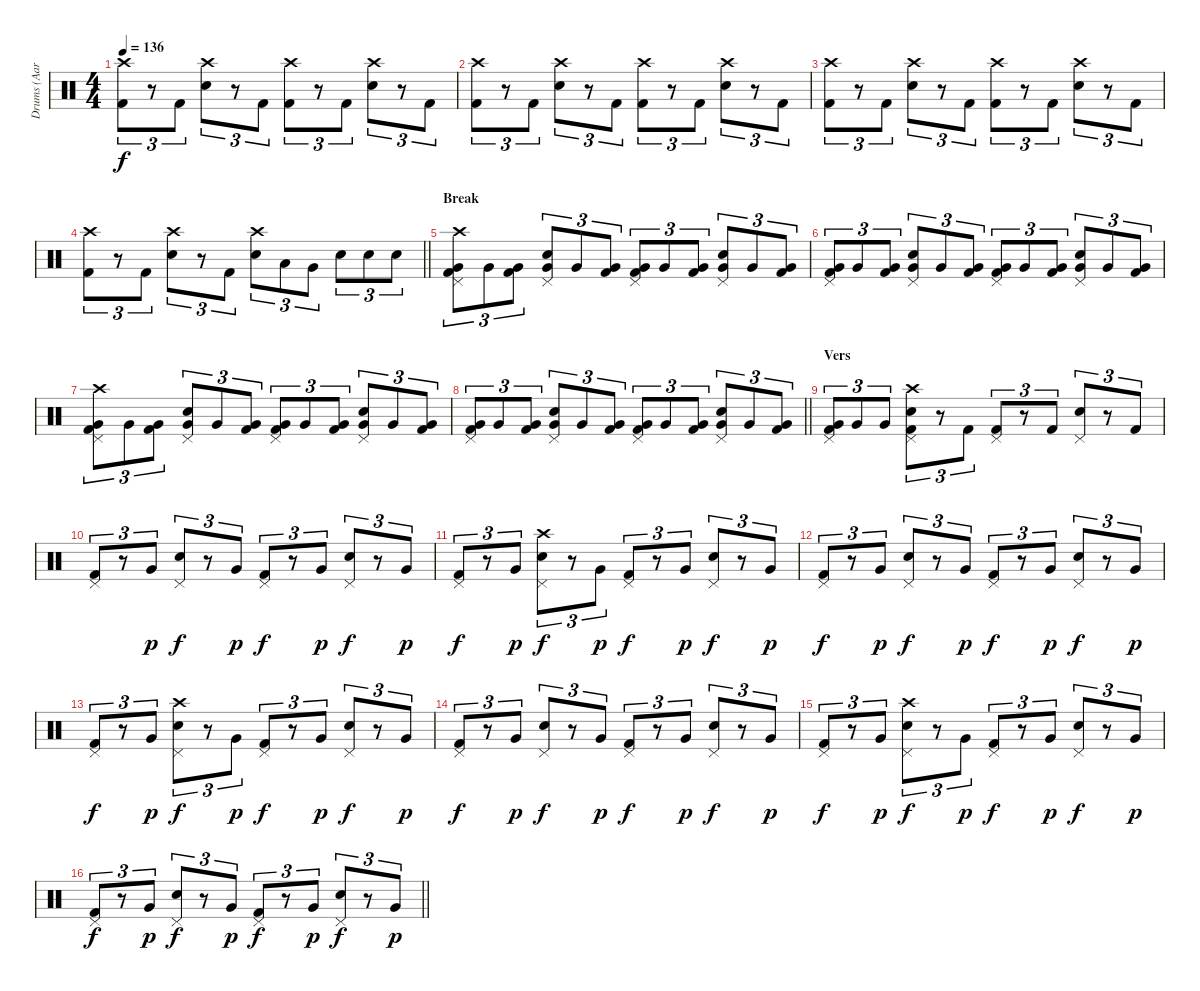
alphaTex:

\track ("Drums (Aaron Solowoniuk)" "Drums (Aar") {instrument percussion}
\staff {score}
\articulation defaults
\ts (4 4)
\tempo 136
\clef neutral
\ks c
("Crash high (hit)" "Kick (hit) 2").8{tu (3 2) dy f} r.8{tu (3 2)} "Kick (hit) 2".8{tu (3 2)} ("Crash high (hit)" "Electric Snare (hit)").8{tu (3 2)} r.8{tu (3 2)} "Kick (hit) 2".8{tu (3 2)} ("Crash high (hit)" "Kick (hit) 2").8{tu (3 2)} r.8{tu (3 2)} "Kick (hit) 2".8{tu (3 2)} ("Crash high (hit)" "Electric Snare (hit)").8{tu (3 2)} r.8{tu (3 2)} "Kick (hit) 2".8{tu (3 2)} |
("Crash high (hit)" "Kick (hit) 2").8{tu (3 2)} r.8{tu (3 2)} "Kick (hit) 2".8{tu (3 2)} ("Crash high (hit)" "Electric Snare (hit)").8{tu (3 2)} r.8{tu (3 2)} "Kick (hit) 2".8{tu (3 2)} ("Crash high (hit)" "Kick (hit) 2").8{tu (3 2)} r.8{tu (3 2)} "Kick (hit) 2".8{tu (3 2)} ("Crash high (hit)" "Electric Snare (hit)").8{tu (3 2)} r.8{tu (3 2)} "Kick (hit) 2".8{tu (3 2)} |
("Crash high (hit)" "Kick (hit) 2").8{tu (3 2)} r.8{tu (3 2)} "Kick (hit) 2".8{tu (3 2)} ("Crash high (hit)" "Electric Snare (hit)").8{tu (3 2)} r.8{tu (3 2)} "Kick (hit) 2".8{tu (3 2)} ("Crash high (hit)" "Kick (hit) 2").8{tu (3 2)} r.8{tu (3 2)} "Kick (hit) 2".8{tu (3 2)} ("Crash high (hit)" "Electric Snare (hit)").8{tu (3 2)} r.8{tu (3 2)} "Kick (hit) 2".8{tu (3 2)} |
\barLineRight lightlight
("Kick (hit) 2" "Crash high (hit)").8{tu (3 2)} r.8{tu (3 2)} "Kick (hit) 2".8{tu (3 2)} ("Electric Snare (hit)" "Crash high (hit)").8{tu (3 2)} r.8{tu (3 2)} "Kick (hit) 2".8{tu (3 2)} ("Electric Snare (hit)" "Crash high (hit)").8{tu (3 2)} "Low Tom (hit)".8{tu (3 2)} "Very Low Tom (hit)".8{tu (3 2)} "Electric Snare (hit)".8{tu (3 2)} "Electric Snare (hit)".8{tu (3 2)} "Electric Snare (hit)".8{tu (3 2)} |
\section ("" "Break")
("Pedal Hi-Hat (hit)" "Crash high (hit)" "Very Low Tom (hit)" "Kick (hit) 2").8{tu (3 2)} "Very Low Tom (hit)".8{tu (3 2)} ("Very Low Tom (hit)" "Kick (hit) 2").8{tu (3 2)} ("Pedal Hi-Hat (hit)" "Very Low Tom (hit)" "Electric Snare (hit)").8{tu (3 2)} "Very Low Tom (hit)".8{tu (3 2)} ("Very Low Tom (hit)" "Kick (hit) 2").8{tu (3 2)} ("Pedal Hi-Hat (hit)" "Very Low Tom (hit)" "Kick (hit) 2").8{tu (3 2)} "Very Low Tom (hit)".8{tu (3 2)} ("Very Low Tom (hit)" "Kick (hit) 2").8{tu (3 2)} ("Pedal Hi-Hat (hit)" "Very Low Tom (hit)" "Electric Snare (hit)").8{tu (3 2)} "Very Low Tom (hit)".8{tu (3 2)} ("Very Low Tom (hit)" "Kick (hit) 2").8{tu (3 2)} |
("Pedal Hi-Hat (hit)" "Very Low Tom (hit)" "Kick (hit) 2").8{tu (3 2)} "Very Low Tom (hit)".8{tu (3 2)} ("Very Low Tom (hit)" "Kick (hit) 2").8{tu (3 2)} ("Pedal Hi-Hat (hit)" "Very Low Tom (hit)" "Electric Snare (hit)").8{tu (3 2)} "Very Low Tom (hit)".8{tu (3 2)} ("Very Low Tom (hit)" "Kick (hit) 2").8{tu (3 2)} ("Pedal Hi-Hat (hit)" "Very Low Tom (hit)" "Kick (hit) 2").8{tu (3 2)} "Very Low Tom (hit)".8{tu (3 2)} ("Very Low Tom (hit)" "Kick (hit) 2").8{tu (3 2)} ("Pedal Hi-Hat (hit)" "Very Low Tom (hit)" "Electric Snare (hit)").8{tu (3 2)} "Very Low Tom (hit)".8{tu (3 2)} ("Very Low Tom (hit)" "Kick (hit) 2").8{tu (3 2)} |
("Pedal Hi-Hat (hit)" "Crash high (hit)" "Very Low Tom (hit)" "Kick (hit) 2").8{tu (3 2)} "Very Low Tom (hit)".8{tu (3 2)} ("Very Low Tom (hit)" "Kick (hit) 2").8{tu (3 2)} ("Pedal Hi-Hat (hit)" "Very Low Tom (hit)" "Electric Snare (hit)").8{tu (3 2)} "Very Low Tom (hit)".8{tu (3 2)} ("Very Low Tom (hit)" "Kick (hit) 2").8{tu (3 2)} ("Pedal Hi-Hat (hit)" "Very Low Tom (hit)" "Kick (hit) 2").8{tu (3 2)} "Very Low Tom (hit)".8{tu (3 2)} ("Very Low Tom (hit)" "Kick (hit) 2").8{tu (3 2)} ("Pedal Hi-Hat (hit)" "Very Low Tom (hit)" "Electric Snare (hit)").8{tu (3 2)} "Very Low Tom (hit)".8{tu (3 2)} ("Very Low Tom (hit)" "Kick (hit) 2").8{tu (3 2)} |
\barLineRight lightlight
("Pedal Hi-Hat (hit)" "Very Low Tom (hit)" "Kick (hit) 2").8{tu (3 2)} "Very Low Tom (hit)".8{tu (3 2)} ("Very Low Tom (hit)" "Kick (hit) 2").8{tu (3 2)} ("Pedal Hi-Hat (hit)" "Very Low Tom (hit)" "Electric Snare (hit)").8{tu (3 2)} "Very Low Tom (hit)".8{tu (3 2)} ("Very Low Tom (hit)" "Kick (hit) 2").8{tu (3 2)} ("Pedal Hi-Hat (hit)" "Very Low Tom (hit)" "Kick (hit) 2").8{tu (3 2)} "Very Low Tom (hit)".8{tu (3 2)} ("Very Low Tom (hit)" "Kick (hit) 2").8{tu (3 2)} ("Pedal Hi-Hat (hit)" "Very Low Tom (hit)" "Electric Snare (hit)").8{tu (3 2)} "Very Low Tom (hit)".8{tu (3 2)} ("Very Low Tom (hit)" "Kick (hit) 2").8{tu (3 2)} |
\section ("" "Vers")
("Pedal Hi-Hat (hit)" "Very Low Tom (hit)" "Kick (hit) 2").8{tu (3 2)} "Very Low Tom (hit)".8{tu (3 2)} "Very Low Tom (hit)".8{tu (3 2)} ("Pedal Hi-Hat (hit)" "Crash high (hit)" "Electric Snare (hit)" "Kick (hit) 2").8{tu (3 2)} r.8{tu (3 2)} "Kick (hit) 2".8{tu (3 2)} ("Pedal Hi-Hat (hit)" "Kick (hit) 2").8{tu (3 2)} r.8{tu (3 2)} "Kick (hit) 2".8{tu (3 2)} ("Pedal Hi-Hat (hit)" "Electric Snare (hit)").8{tu (3 2)} r.8{tu (3 2)} "Kick (hit) 2".8{tu (3 2)} |
("Pedal Hi-Hat (hit)" "Kick (hit) 2").8{tu (3 2)} r.8{tu (3 2)} "Very Low Tom (hit)".8{tu (3 2) dy p} ("Pedal Hi-Hat (hit)" "Electric Snare (hit)").8{tu (3 2) dy f} r.8{tu (3 2)} "Very Low Tom (hit)".8{tu (3 2) dy p} ("Pedal Hi-Hat (hit)" "Kick (hit) 2").8{tu (3 2) dy f} r.8{tu (3 2)} "Very Low Tom (hit)".8{tu (3 2) dy p} ("Pedal Hi-Hat (hit)" "Electric Snare (hit)").8{tu (3 2) dy f} r.8{tu (3 2)} "Very Low Tom (hit)".8{tu (3 2) dy p} |
("Pedal Hi-Hat (hit)" "Kick (hit) 2").8{tu (3 2) dy f} r.8{tu (3 2)} "Very Low Tom (hit)".8{tu (3 2) dy p} ("Crash high (hit)" "Pedal Hi-Hat (hit)" "Electric Snare (hit)").8{tu (3 2) dy f} r.8{tu (3 2)} "Very Low Tom (hit)".8{tu (3 2) dy p} ("Pedal Hi-Hat (hit)" "Kick (hit) 2").8{tu (3 2) dy f} r.8{tu (3 2)} "Very Low Tom (hit)".8{tu (3 2) dy p} ("Pedal Hi-Hat (hit)" "Electric Snare (hit)").8{tu (3 2) dy f} r.8{tu (3 2)} "Very Low Tom (hit)".8{tu (3 2) dy p} |
("Pedal Hi-Hat (hit)" "Kick (hit) 2").8{tu (3 2) dy f} r.8{tu (3 2)} "Very Low Tom (hit)".8{tu (3 2) dy p} ("Pedal Hi-Hat (hit)" "Electric Snare (hit)").8{tu (3 2) dy f} r.8{tu (3 2)} "Very Low Tom (hit)".8{tu (3 2) dy p} ("Pedal Hi-Hat (hit)" "Kick (hit) 2").8{tu (3 2) dy f} r.8{tu (3 2)} "Very Low Tom (hit)".8{tu (3 2) dy p} ("Pedal Hi-Hat (hit)" "Electric Snare (hit)").8{tu (3 2) dy f} r.8{tu (3 2)} "Very Low Tom (hit)".8{tu (3 2) dy p} |
("Pedal Hi-Hat (hit)" "Kick (hit) 2").8{tu (3 2) dy f} r.8{tu (3 2)} "Very Low Tom (hit)".8{tu (3 2) dy p} ("Crash high (hit)" "Pedal Hi-Hat (hit)" "Electric Snare (hit)").8{tu (3 2) dy f} r.8{tu (3 2)} "Very Low Tom (hit)".8{tu (3 2) dy p} ("Pedal Hi-Hat (hit)" "Kick (hit) 2").8{tu (3 2) dy f} r.8{tu (3 2)} "Very Low Tom (hit)".8{tu (3 2) dy p} ("Pedal Hi-Hat (hit)" "Electric Snare (hit)").8{tu (3 2) dy f} r.8{tu (3 2)} "Very Low Tom (hit)".8{tu (3 2) dy p} |
("Pedal Hi-Hat (hit)" "Kick (hit) 2").8{tu (3 2) dy f} r.8{tu (3 2)} "Very Low Tom (hit)".8{tu (3 2) dy p} ("Pedal Hi-Hat (hit)" "Electric Snare (hit)").8{tu (3 2) dy f} r.8{tu (3 2)} "Very Low Tom (hit)".8{tu (3 2) dy p} ("Pedal Hi-Hat (hit)" "Kick (hit) 2").8{tu (3 2) dy f} r.8{tu (3 2)} "Very Low Tom (hit)".8{tu (3 2) dy p} ("Pedal Hi-Hat (hit)" "Electric Snare (hit)").8{tu (3 2) dy f} r.8{tu (3 2)} "Very Low Tom (hit)".8{tu (3 2) dy p} |
("Pedal Hi-Hat (hit)" "Kick (hit) 2").8{tu (3 2) dy f} r.8{tu (3 2)} "Very Low Tom (hit)".8{tu (3 2) dy p} ("Crash high (hit)" "Pedal Hi-Hat (hit)" "Electric Snare (hit)").8{tu (3 2) dy f} r.8{tu (3 2)} "Very Low Tom (hit)".8{tu (3 2) dy p} ("Pedal Hi-Hat (hit)" "Kick (hit) 2").8{tu (3 2) dy f} r.8{tu (3 2)} "Very Low Tom (hit)".8{tu (3 2) dy p} ("Pedal Hi-Hat (hit)" "Electric Snare (hit)").8{tu (3 2) dy f} r.8{tu (3 2)} "Very Low Tom (hit)".8{tu (3 2) dy p} |
\barLineRight lightlight
("Pedal Hi-Hat (hit)" "Kick (hit) 2").8{tu (3 2) dy f} r.8{tu (3 2)} "Very Low Tom (hit)".8{tu (3 2) dy p} ("Pedal Hi-Hat (hit)" "Electric Snare (hit)").8{tu (3 2) dy f} r.8{tu (3 2)} "Very Low Tom (hit)".8{tu (3 2) dy p} ("Pedal Hi-Hat (hit)" "Kick (hit) 2").8{tu (3 2) dy f} r.8{tu (3 2)} "Very Low Tom (hit)".8{tu (3 2) dy p} ("Pedal Hi-Hat (hit)" "Electric Snare (hit)").8{tu (3 2) dy f} r.8{tu (3 2)} "Very Low Tom (hit)".8{tu (3 2) dy p}
